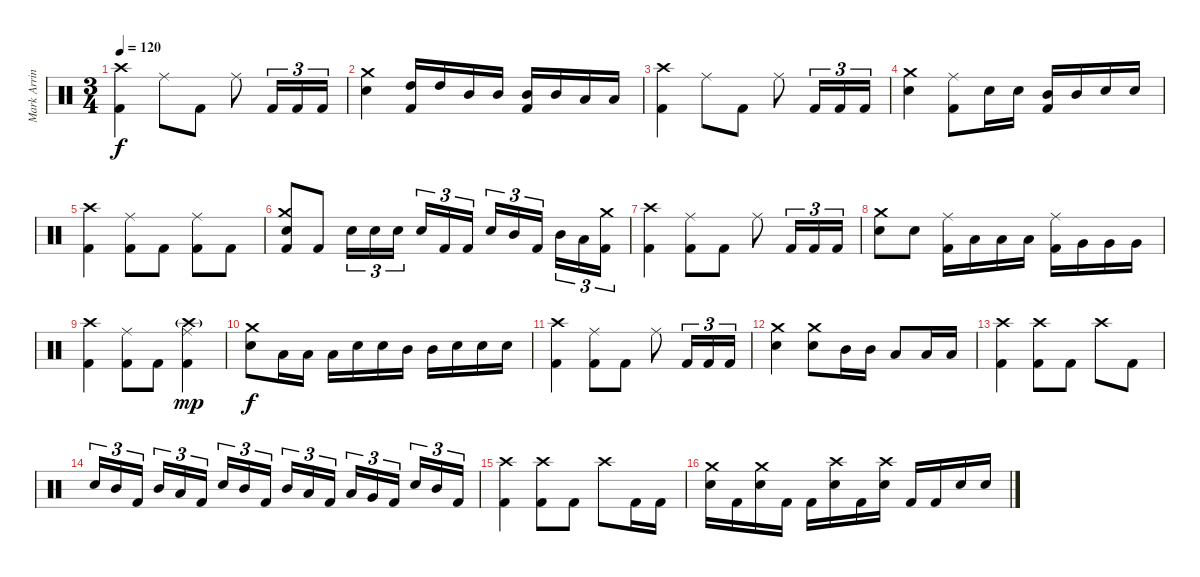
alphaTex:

\track ("Mark Arrington Drums" "Mark Arrin") {instrument percussion}
\staff {score}
\articulation defaults
\ts (3 4)
\tempo 120
\clef neutral
\ks c
("Crash high (hit)" "Kick (hit) 2").4{dy f} "Ride (middle)".8 "Kick (hit) 2".8 "Ride (middle)".8 "Kick (hit) 2".16{tu (3 2)} "Kick (hit) 2".16{tu (3 2)} "Kick (hit) 2".16{tu (3 2)} |
("Crash medium (hit)" "Electric Snare (hit)").4 ("High Tom (hit)" "Kick (hit) 2").16 "High Tom (hit)".16 "Mid Tom (hit)".16 "Mid Tom (hit)".16 ("Mid Tom (hit)" "Kick (hit) 2").16 "Mid Tom (hit)".16 "Low Tom (hit)".16 "Low Tom (hit)".16 |
("Crash high (hit)" "Kick (hit) 2").4 "Ride (middle)".8 "Kick (hit) 2".8 "Ride (middle)".8 "Kick (hit) 2".16{tu (3 2)} "Kick (hit) 2".16{tu (3 2)} "Kick (hit) 2".16{tu (3 2)} |
("Crash medium (hit)" "Electric Snare (hit)").4 ("Ride (middle)" "Kick (hit) 2").8 "Electric Snare (hit)".16 "Electric Snare (hit)".16 ("Mid Tom (hit)" "Kick (hit) 2").16 "Mid Tom (hit)".16 "Electric Snare (hit)".16 "Electric Snare (hit)".16 |
("Crash high (hit)" "Kick (hit) 2").4 ("Ride (middle)" "Kick (hit) 2").8 "Kick (hit) 2".8 ("Ride (middle)" "Kick (hit) 2").8 "Kick (hit) 2".8 |
("Crash medium (hit)" "Electric Snare (hit)" "Kick (hit) 2").8 "Kick (hit) 2".8 "Electric Snare (hit)".16{tu (3 2)} "Electric Snare (hit)".16{tu (3 2)} "Electric Snare (hit)".16{tu (3 2) beam splitsecondary} "Electric Snare (hit)".16{tu (3 2)} "Kick (hit) 2".16{tu (3 2)} "Kick (hit) 2".16{tu (3 2)} "Electric Snare (hit)".16{tu (3 2)} "Mid Tom (hit)".16{tu (3 2)} "Kick (hit) 2".16{tu (3 2) beam splitsecondary} "Mid Tom (hit)".16{tu (3 2)} "Low Tom (hit)".16{tu (3 2)} ("Crash medium (hit)" "Kick (hit) 2").16{tu (3 2)} |
("Crash high (hit)" "Kick (hit) 2").4 ("Ride (middle)" "Kick (hit) 2").8 "Kick (hit) 2".8 "Ride (middle)".8 "Kick (hit) 2".16{tu (3 2)} "Kick (hit) 2".16{tu (3 2)} "Kick (hit) 2".16{tu (3 2)} |
("Crash medium (hit)" "Electric Snare (hit)").8 "Electric Snare (hit)".8 ("Ride (middle)" "Kick (hit) 2").16 "Low Tom (hit)".16 "Low Tom (hit)".16 "Low Tom (hit)".16 ("Ride (middle)" "Kick (hit) 2").16 "Very Low Tom (hit)".16 "Very Low Tom (hit)".16 "Very Low Tom (hit)".16 |
("Crash high (hit)" "Kick (hit) 2").4 ("Ride (middle)" "Kick (hit) 2").8 "Kick (hit) 2".8 ("Crash high (hit)"{g} "Ride (middle)" "Kick (hit) 2").4{dy mp} |
("Crash medium (hit)" "Electric Snare (hit)").8{dy f} "Low Tom (hit)".16 "Low Tom (hit)".16 "Low Tom (hit)".16 "Electric Snare (hit)".16 "Electric Snare (hit)".16 "Mid Tom (hit)".16 "Mid Tom (hit)".16 "Electric Snare (hit)".16 "Electric Snare (hit)".16 "Electric Snare (hit)".16 |
("Crash high (hit)" "Kick (hit) 2").4 ("Ride (middle)" "Kick (hit) 2").8 "Kick (hit) 2".8 "Ride (middle)".8 "Kick (hit) 2".16{tu (3 2)} "Kick (hit) 2".16{tu (3 2)} "Kick (hit) 2".16{tu (3 2)} |
("Crash medium (hit)" "Electric Snare (hit)").4 ("Crash medium (hit)" "Electric Snare (hit)").8 "Mid Tom (hit)".16 "Mid Tom (hit)".16 "Low Tom (hit)".8 "Low Tom (hit)".16 "Low Tom (hit)".16 |
("Crash high (hit)" "Kick (hit) 2").4 ("Crash high (hit)" "Kick (hit) 2").8 "Kick (hit) 2".8 "Crash high (hit)".8 "Kick (hit) 2".8 |
"Electric Snare (hit)".16{tu (3 2)} "Mid Tom (hit)".16{tu (3 2)} "Kick (hit) 2".16{tu (3 2) beam splitsecondary} "Mid Tom (hit)".16{tu (3 2)} "Low Tom (hit)".16{tu (3 2)} "Kick (hit) 2".16{tu (3 2)} "Electric Snare (hit)".16{tu (3 2)} "Mid Tom (hit)".16{tu (3 2)} "Kick (hit) 2".16{tu (3 2) beam splitsecondary} "Mid Tom (hit)".16{tu (3 2)} "Low Tom (hit)".16{tu (3 2)} "Kick (hit) 2".16{tu (3 2)} "Low Tom (hit)".16{tu (3 2)} "Very Low Tom (hit)".16{tu (3 2)} "Kick (hit) 2".16{tu (3 2) beam splitsecondary} "Electric Snare (hit)".16{tu (3 2)} "Mid Tom (hit)".16{tu (3 2)} "Kick (hit) 2".16{tu (3 2)} |
("Crash high (hit)" "Kick (hit) 2").4 ("Crash high (hit)" "Kick (hit) 2").8 "Kick (hit) 2".8 "Crash high (hit)".8 "Kick (hit) 2".16 "Kick (hit) 2".16 |
("Crash medium (hit)" "Electric Snare (hit)").16 "Kick (hit) 2".16 ("Crash medium (hit)" "Electric Snare (hit)").16 "Kick (hit) 2".16 "Kick (hit) 2".16 ("Crash high (hit)" "Electric Snare (hit)").16 "Kick (hit) 2".16 ("Crash high (hit)" "Electric Snare (hit)").16 "Kick (hit) 2".16 "Kick (hit) 2".16 "Electric Snare (hit)".16 "Electric Snare (hit)".16
